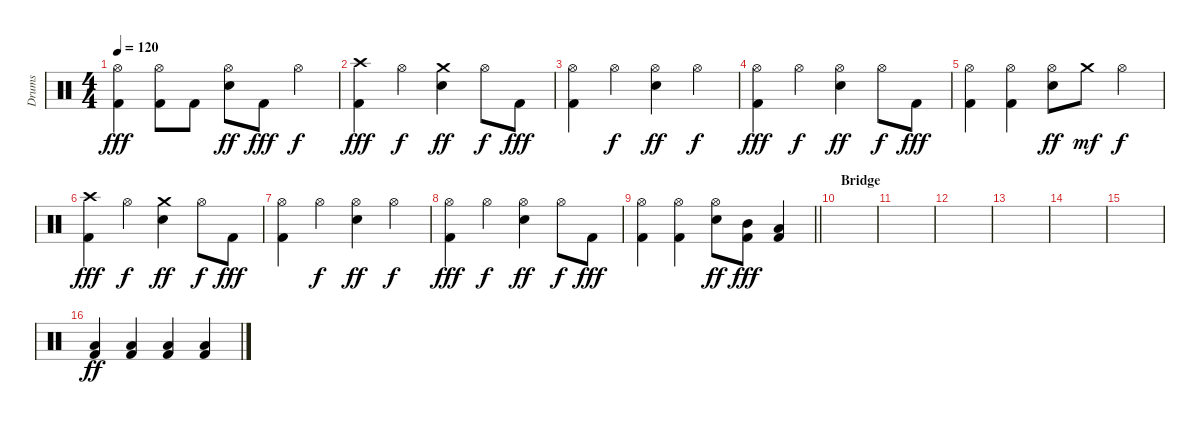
\track ("Drums" "Drums") {instrument percussion}
\staff {score}
\articulation defaults
\ts (4 4)
\tempo 120
\clef neutral
\ks c
("Hi-Hat (open)" "Kick (hit) 2").4{dy fff} ("Hi-Hat (open)" "Kick (hit) 2").8 "Kick (hit) 2".8 ("Hi-Hat (open)" "Snare (hit) 2").8{dy ff} "Kick (hit) 2".8{dy fff} "Hi-Hat (open)".4{dy f} |
("Crash high (hit)" "Kick (hit) 2").4{dy fff} "Hi-Hat (open)".4{dy f} ("Crash medium (hit)" "Snare (hit) 2").4{dy ff} "Hi-Hat (open)".8{dy f} "Kick (hit) 2".8{dy fff} |
("Hi-Hat (open)" "Kick (hit) 2").4 "Hi-Hat (open)".4{dy f} ("Hi-Hat (open)" "Snare (hit) 2").4{dy ff} "Hi-Hat (open)".4{dy f} |
("Hi-Hat (open)" "Kick (hit) 2").4{dy fff} "Hi-Hat (open)".4{dy f} ("Hi-Hat (open)" "Snare (hit) 2").4{dy ff} "Hi-Hat (open)".8{dy f} "Kick (hit) 2".8{dy fff} |
("Hi-Hat (open)" "Kick (hit) 2").4 ("Hi-Hat (open)" "Kick (hit) 2").4 ("Hi-Hat (open)" "Snare (hit) 2").8{dy ff} "Crash medium (hit)".8{dy mf} "Hi-Hat (open)".4{dy f} |
("Crash high (hit)" "Kick (hit) 2").4{dy fff} "Hi-Hat (open)".4{dy f} ("Crash medium (hit)" "Snare (hit) 2").4{dy ff} "Hi-Hat (open)".8{dy f} "Kick (hit) 2".8{dy fff} |
("Hi-Hat (open)" "Kick (hit) 2").4 "Hi-Hat (open)".4{dy f} ("Hi-Hat (open)" "Snare (hit) 2").4{dy ff} "Hi-Hat (open)".4{dy f} |
("Hi-Hat (open)" "Kick (hit) 2").4{dy fff} "Hi-Hat (open)".4{dy f} ("Hi-Hat (open)" "Snare (hit) 2").4{dy ff} "Hi-Hat (open)".8{dy f} "Kick (hit) 2".8{dy fff} |
\barLineRight lightlight
("Hi-Hat (open)" "Kick (hit) 2").4 ("Hi-Hat (open)" "Kick (hit) 2").4 ("Hi-Hat (open)" "Snare (hit) 2").8{dy ff} ("Mid Tom (hit)" "Kick (hit) 2").8{dy fff} ("Low Tom (hit)" "Kick (hit) 2").4 |
\section ("" "Bridge")
|
|
|
|
|
|
("Low Floor Tom (hit)" "Kick (hit) 2").4{dy ff} ("Low Floor Tom (hit)" "Kick (hit) 2").4 ("Low Floor Tom (hit)" "Kick (hit) 2").4 ("Low Floor Tom (hit)" "Kick (hit) 2").4
